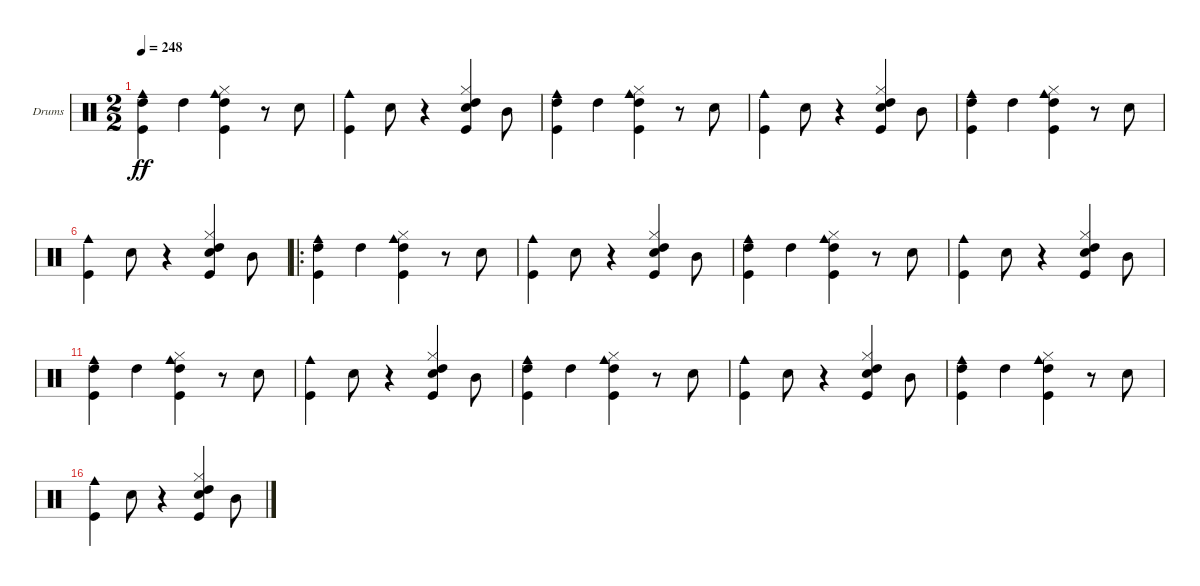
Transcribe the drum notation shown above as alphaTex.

\bracketExtendMode nobrackets
\firstSystemTrackNameOrientation horizontal
\otherSystemsTrackNameOrientation horizontal
\defaultBarNumberDisplay FirstOfSystem
\track ("Drumkit" "Drums") {instrument percussion}
\staff {score}
\articulation defaults
\ts (2 2)
\tempo 248
\clef neutral
\ks c
("Cowbell medium (hit)" "Kick (hit)" "High Tom (hit)").4{dy ff} "High Tom (hit)".4 ("Kick (hit)" "High Tom (hit)" "Cowbell medium (hit)" "Hi-Hat (closed)").4 r.8 "Snare (hit) 2".8 |
("Kick (hit)" "Cowbell medium (hit)").4 "Snare (hit) 2".8 r.4 ("Kick (hit)" "Snare (hit) 2" "High Tom (hit)" "Hi-Hat (closed)").4 "Mid Tom (hit)".8 |
("Cowbell medium (hit)" "Kick (hit)" "High Tom (hit)").4 "High Tom (hit)".4 ("Kick (hit)" "High Tom (hit)" "Cowbell medium (hit)" "Hi-Hat (closed)").4 r.8 "Snare (hit) 2".8 |
("Kick (hit)" "Cowbell medium (hit)").4 "Snare (hit) 2".8 r.4 ("Kick (hit)" "Snare (hit) 2" "High Tom (hit)" "Hi-Hat (closed)").4 "Mid Tom (hit)".8 |
("Cowbell medium (hit)" "Kick (hit)" "High Tom (hit)").4 "High Tom (hit)".4 ("Kick (hit)" "High Tom (hit)" "Cowbell medium (hit)" "Hi-Hat (closed)").4 r.8 "Snare (hit) 2".8 |
("Kick (hit)" "Cowbell medium (hit)").4 "Snare (hit) 2".8 r.4 ("Kick (hit)" "Snare (hit) 2" "High Tom (hit)" "Hi-Hat (closed)").4 "Mid Tom (hit)".8 |
\ro
("Cowbell medium (hit)" "Kick (hit)" "High Tom (hit)").4 "High Tom (hit)".4 ("Kick (hit)" "High Tom (hit)" "Cowbell medium (hit)" "Hi-Hat (closed)").4 r.8 "Snare (hit) 2".8 |
("Kick (hit)" "Cowbell medium (hit)").4 "Snare (hit) 2".8 r.4 ("Kick (hit)" "Snare (hit) 2" "High Tom (hit)" "Hi-Hat (closed)").4 "Mid Tom (hit)".8 |
("Cowbell medium (hit)" "Kick (hit)" "High Tom (hit)").4 "High Tom (hit)".4 ("Kick (hit)" "High Tom (hit)" "Cowbell medium (hit)" "Hi-Hat (closed)").4 r.8 "Snare (hit) 2".8 |
("Kick (hit)" "Cowbell medium (hit)").4 "Snare (hit) 2".8 r.4 ("Kick (hit)" "Snare (hit) 2" "High Tom (hit)" "Hi-Hat (closed)").4 "Mid Tom (hit)".8 |
("Cowbell medium (hit)" "Kick (hit)" "High Tom (hit)").4 "High Tom (hit)".4 ("Kick (hit)" "High Tom (hit)" "Cowbell medium (hit)" "Hi-Hat (closed)").4 r.8 "Snare (hit) 2".8 |
("Kick (hit)" "Cowbell medium (hit)").4 "Snare (hit) 2".8 r.4 ("Kick (hit)" "Snare (hit) 2" "High Tom (hit)" "Hi-Hat (closed)").4 "Mid Tom (hit)".8 |
("Cowbell medium (hit)" "Kick (hit)" "High Tom (hit)").4 "High Tom (hit)".4 ("Kick (hit)" "High Tom (hit)" "Cowbell medium (hit)" "Hi-Hat (closed)").4 r.8 "Snare (hit) 2".8 |
("Kick (hit)" "Cowbell medium (hit)").4 "Snare (hit) 2".8 r.4 ("Kick (hit)" "Snare (hit) 2" "High Tom (hit)" "Hi-Hat (closed)").4 "Mid Tom (hit)".8 |
("Cowbell medium (hit)" "Kick (hit)" "High Tom (hit)").4 "High Tom (hit)".4 ("Kick (hit)" "High Tom (hit)" "Cowbell medium (hit)" "Hi-Hat (closed)").4 r.8 "Snare (hit) 2".8 |
("Kick (hit)" "Cowbell medium (hit)").4 "Snare (hit) 2".8 r.4 ("Kick (hit)" "Snare (hit) 2" "High Tom (hit)" "Hi-Hat (closed)").4 "Mid Tom (hit)".8
